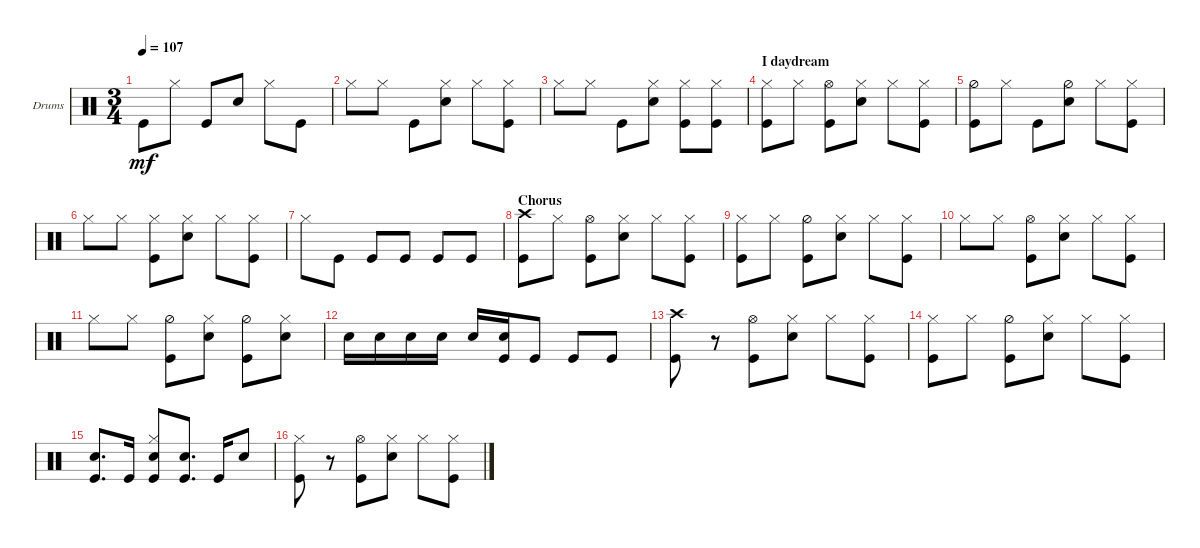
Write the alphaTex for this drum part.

\defaultSystemsLayout 4
\bracketExtendMode groupsimilarinstruments
\firstSystemTrackNameOrientation horizontal
\otherSystemsTrackNameOrientation horizontal
\track ("Drumkit" "Drums") {instrument percussion}
\staff {score}
\articulation defaults
\ts (3 4)
\tempo 107
\clef neutral
\ks c "Kick (hit)".8{dy mf} "Hi-Hat (closed)".8 "Kick (hit)".8 "Snare (hit) 2".8 "Hi-Hat (closed)".8 "Kick (hit)".8
|
"Hi-Hat (closed)".8 "Hi-Hat (closed)".8 "Kick (hit)".8 ("Snare (hit) 2" "Hi-Hat (closed)").8 "Hi-Hat (closed)".8 ("Kick (hit)" "Hi-Hat (closed)").8 |
"Hi-Hat (closed)".8 "Hi-Hat (closed)".8 "Kick (hit)".8 ("Snare (hit) 2" "Hi-Hat (closed)").8 ("Kick (hit)" "Hi-Hat (closed)").8 ("Kick (hit)" "Hi-Hat (closed)").8 |
\section ("" "I daydream")
("Kick (hit)" "Hi-Hat (closed)").8 "Hi-Hat (closed)".8 ("Hi-Hat (open)" "Kick (hit)").8 ("Hi-Hat (closed)" "Snare (hit) 2").8 "Hi-Hat (closed)".8 ("Kick (hit)" "Hi-Hat (closed)").8 |
("Kick (hit)" "Hi-Hat (half)").8 "Hi-Hat (closed)".8 "Kick (hit)".8 ("Hi-Hat (half)" "Snare (hit) 2").8 "Hi-Hat (closed)".8 ("Kick (hit)" "Hi-Hat (closed)").8 |
"Hi-Hat (closed)".8 "Hi-Hat (closed)".8 ("Kick (hit)" "Hi-Hat (closed)").8 ("Snare (hit) 2" "Hi-Hat (closed)").8 "Hi-Hat (closed)".8 ("Kick (hit)" "Hi-Hat (closed)").8 |
"Hi-Hat (closed)".8 "Kick (hit)".8 "Kick (hit)".8 "Kick (hit)".8 "Kick (hit)".8 "Kick (hit)".8 |
\section ("" "Chorus")
("Kick (hit)" "Crash high (hit)").8 "Hi-Hat (closed)".8 ("Hi-Hat (open)" "Kick (hit)").8 ("Snare (hit) 2" "Hi-Hat (closed)").8 "Hi-Hat (closed)".8 ("Hi-Hat (closed)" "Kick (hit)").8 |
("Hi-Hat (closed)" "Kick (hit)").8 "Hi-Hat (closed)".8 ("Hi-Hat (half)" "Kick (hit)").8 ("Hi-Hat (closed)" "Snare (hit) 2").8 "Hi-Hat (closed)".8 ("Hi-Hat (closed)" "Kick (hit)").8 |
"Hi-Hat (closed)".8 "Hi-Hat (closed)".8 ("Hi-Hat (open)" "Kick (hit)").8 ("Snare (hit) 2" "Hi-Hat (closed)").8 "Hi-Hat (closed)".8 ("Kick (hit)" "Hi-Hat (closed)").8 |
"Hi-Hat (closed)".8 "Hi-Hat (closed)".8 ("Hi-Hat (half)" "Kick (hit)").8 ("Hi-Hat (closed)" "Snare (hit) 2").8 ("Hi-Hat (half)" "Kick (hit)").8 ("Hi-Hat (closed)" "Snare (hit) 2").8 |
"Snare (hit) 2".16 "Snare (hit) 2".16 "Snare (hit) 2".16 "Snare (hit) 2".16 "Snare (hit) 2".16 ("Kick (hit)" "Snare (hit) 2").16 "Kick (hit)".8 "Kick (hit)".8 "Kick (hit)".8 |
("Kick (hit)" "Crash high (hit)").8 r.8 ("Hi-Hat (open)" "Kick (hit)").8 ("Snare (hit) 2" "Hi-Hat (closed)").8 "Hi-Hat (closed)".8 ("Hi-Hat (closed)" "Kick (hit)").8 |
("Hi-Hat (closed)" "Kick (hit)").8 "Hi-Hat (closed)".8 ("Hi-Hat (half)" "Kick (hit)").8 ("Hi-Hat (closed)" "Snare (hit) 2").8 "Hi-Hat (closed)".8 ("Hi-Hat (closed)" "Kick (hit)").8 |
("Kick (hit)" "Snare (hit) 2").8{d} "Kick (hit)".16 ("Hi-Hat (closed)" "Kick (hit)" "Snare (hit) 2").8 ("Kick (hit)" "Snare (hit) 2").8{d} "Kick (hit)".16 "Snare (hit) 2".8 |
("Kick (hit)" "Hi-Hat (closed)").8 r.8 ("Hi-Hat (open)" "Kick (hit)").8 ("Snare (hit) 2" "Hi-Hat (closed)").8 "Hi-Hat (closed)".8 ("Hi-Hat (closed)" "Kick (hit)").8
